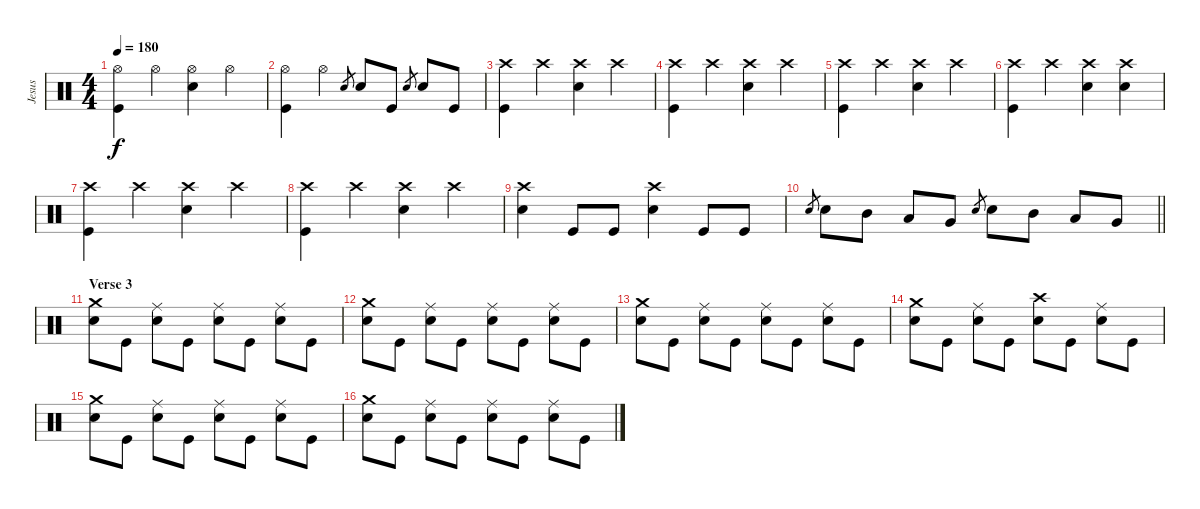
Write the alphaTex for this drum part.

\track ("Jesus" "Jesus") {instrument percussion}
\staff {score}
\articulation defaults
\ts (4 4)
\tempo 180
\clef neutral
\ks c
("Hi-Hat (open)" "Kick (hit)").4{dy f} "Hi-Hat (open)".4 ("Hi-Hat (open)" "Snare (hit) 2").4 "Hi-Hat (open)".4 |
("Hi-Hat (open)" "Kick (hit)").4 "Hi-Hat (open)".4 "Snare (hit) 2".8{gr} "Snare (hit) 2".8 "Kick (hit)".8 "Snare (hit) 2".8{gr} "Snare (hit) 2".8 "Kick (hit)".8 |
("Crash high (hit)" "Kick (hit)").4 "Crash high (hit)".4 ("Crash high (hit)" "Snare (hit) 2").4 "Crash high (hit)".4 |
("Crash high (hit)" "Kick (hit)").4 "Crash high (hit)".4 ("Crash high (hit)" "Snare (hit) 2").4 "Crash high (hit)".4 |
("Crash high (hit)" "Kick (hit)").4 "Crash high (hit)".4 ("Crash high (hit)" "Snare (hit) 2").4 "Crash high (hit)".4 |
("Crash high (hit)" "Kick (hit)").4 "Crash high (hit)".4 ("Crash high (hit)" "Snare (hit) 2").4 ("Crash high (hit)" "Snare (hit) 2").4 |
("Crash high (hit)" "Kick (hit)").4 "Crash high (hit)".4 ("Crash high (hit)" "Snare (hit) 2").4 "Crash high (hit)".4 |
("Crash high (hit)" "Kick (hit)").4 "Crash high (hit)".4 ("Crash high (hit)" "Snare (hit) 2").4 "Crash high (hit)".4 |
("Crash high (hit)" "Snare (hit) 2").4 "Kick (hit)".8 "Kick (hit)".8 ("Crash high (hit)" "Snare (hit) 2").4 "Kick (hit)".8 "Kick (hit)".8 |
\barLineRight lightlight "Snare (hit) 2".8{gr} "Snare (hit) 2".8 "Mid Tom (hit)".8 "Low Tom (hit)".8 "Very Low Tom (hit)".8 "Snare (hit) 2".8{gr} "Snare (hit) 2".8 "Mid Tom (hit)".8 "Low Tom (hit)".8 "Very Low Tom (hit)".8
|
\section ("" "Verse 3")
("Crash medium (hit)" "Snare (hit) 2").8 "Kick (hit)".8 ("Ride (middle)" "Snare (hit) 2").8 "Kick (hit)".8 ("Ride (middle)" "Snare (hit) 2").8 "Kick (hit)".8 ("Ride (middle)" "Snare (hit) 2").8 "Kick (hit)".8 |
("Crash medium (hit)" "Snare (hit) 2").8 "Kick (hit)".8 ("Ride (middle)" "Snare (hit) 2").8 "Kick (hit)".8 ("Ride (middle)" "Snare (hit) 2").8 "Kick (hit)".8 ("Ride (middle)" "Snare (hit) 2").8 "Kick (hit)".8 |
("Crash medium (hit)" "Snare (hit) 2").8 "Kick (hit)".8 ("Ride (middle)" "Snare (hit) 2").8 "Kick (hit)".8 ("Ride (middle)" "Snare (hit) 2").8 "Kick (hit)".8 ("Ride (middle)" "Snare (hit) 2").8 "Kick (hit)".8 |
("Crash medium (hit)" "Snare (hit) 2").8 "Kick (hit)".8 ("Ride (middle)" "Snare (hit) 2").8 "Kick (hit)".8 ("Crash high (hit)" "Snare (hit) 2").8 "Kick (hit)".8 ("Ride (middle)" "Snare (hit) 2").8 "Kick (hit)".8 |
("Crash medium (hit)" "Snare (hit) 2").8 "Kick (hit)".8 ("Ride (middle)" "Snare (hit) 2").8 "Kick (hit)".8 ("Ride (middle)" "Snare (hit) 2").8 "Kick (hit)".8 ("Ride (middle)" "Snare (hit) 2").8 "Kick (hit)".8 |
("Crash medium (hit)" "Snare (hit) 2").8 "Kick (hit)".8 ("Ride (middle)" "Snare (hit) 2").8 "Kick (hit)".8 ("Ride (middle)" "Snare (hit) 2").8 "Kick (hit)".8 ("Ride (middle)" "Snare (hit) 2").8 "Kick (hit)".8
